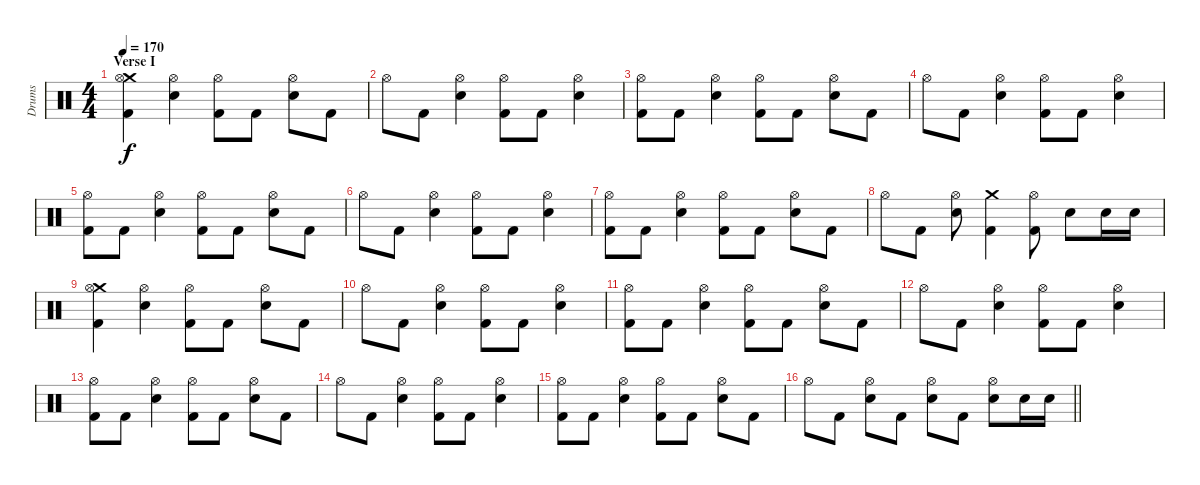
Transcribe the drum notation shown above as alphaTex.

\track ("Drums" "Drums") {instrument percussion}
\staff {score}
\articulation defaults
\ts (4 4)
\section ("" "Verse I")
\tempo 170
\clef neutral
\ks c
("Crash medium (hit)" "Hi-Hat (open)" "Kick (hit) 2").4{dy f} ("Hi-Hat (open)" "Electric Snare (hit)").4 ("Hi-Hat (open)" "Kick (hit) 2").8 "Kick (hit) 2".8 ("Hi-Hat (open)" "Electric Snare (hit)").8 "Kick (hit) 2".8 |
"Hi-Hat (open)".8 "Kick (hit) 2".8 ("Hi-Hat (open)" "Electric Snare (hit)").4 ("Hi-Hat (open)" "Kick (hit) 2").8 "Kick (hit) 2".8 ("Hi-Hat (open)" "Electric Snare (hit)").4 |
("Hi-Hat (open)" "Kick (hit) 2").8 "Kick (hit) 2".8 ("Hi-Hat (open)" "Electric Snare (hit)").4 ("Hi-Hat (open)" "Kick (hit) 2").8 "Kick (hit) 2".8 ("Hi-Hat (open)" "Electric Snare (hit)").8 "Kick (hit) 2".8 |
"Hi-Hat (open)".8 "Kick (hit) 2".8 ("Hi-Hat (open)" "Electric Snare (hit)").4 ("Hi-Hat (open)" "Kick (hit) 2").8 "Kick (hit) 2".8 ("Hi-Hat (open)" "Electric Snare (hit)").4 |
("Hi-Hat (open)" "Kick (hit) 2").8 "Kick (hit) 2".8 ("Hi-Hat (open)" "Electric Snare (hit)").4 ("Hi-Hat (open)" "Kick (hit) 2").8 "Kick (hit) 2".8 ("Hi-Hat (open)" "Electric Snare (hit)").8 "Kick (hit) 2".8 |
"Hi-Hat (open)".8 "Kick (hit) 2".8 ("Hi-Hat (open)" "Electric Snare (hit)").4 ("Hi-Hat (open)" "Kick (hit) 2").8 "Kick (hit) 2".8 ("Hi-Hat (open)" "Electric Snare (hit)").4 |
("Hi-Hat (open)" "Kick (hit) 2").8 "Kick (hit) 2".8 ("Hi-Hat (open)" "Electric Snare (hit)").4 ("Hi-Hat (open)" "Kick (hit) 2").8 "Kick (hit) 2".8 ("Hi-Hat (open)" "Electric Snare (hit)").8 "Kick (hit) 2".8 |
"Hi-Hat (open)".8 "Kick (hit) 2".8 ("Hi-Hat (open)" "Electric Snare (hit)").8 ("Crash medium (hit)" "Kick (hit) 2").4 ("Hi-Hat (open)" "Kick (hit) 2").8 "Electric Snare (hit)".8 "Electric Snare (hit)".16 "Electric Snare (hit)".16 |
("Crash medium (hit)" "Hi-Hat (open)" "Kick (hit) 2").4 ("Hi-Hat (open)" "Electric Snare (hit)").4 ("Hi-Hat (open)" "Kick (hit) 2").8 "Kick (hit) 2".8 ("Hi-Hat (open)" "Electric Snare (hit)").8 "Kick (hit) 2".8 |
"Hi-Hat (open)".8 "Kick (hit) 2".8 ("Hi-Hat (open)" "Electric Snare (hit)").4 ("Hi-Hat (open)" "Kick (hit) 2").8 "Kick (hit) 2".8 ("Hi-Hat (open)" "Electric Snare (hit)").4 |
("Hi-Hat (open)" "Kick (hit) 2").8 "Kick (hit) 2".8 ("Hi-Hat (open)" "Electric Snare (hit)").4 ("Hi-Hat (open)" "Kick (hit) 2").8 "Kick (hit) 2".8 ("Hi-Hat (open)" "Electric Snare (hit)").8 "Kick (hit) 2".8 |
"Hi-Hat (open)".8 "Kick (hit) 2".8 ("Hi-Hat (open)" "Electric Snare (hit)").4 ("Hi-Hat (open)" "Kick (hit) 2").8 "Kick (hit) 2".8 ("Hi-Hat (open)" "Electric Snare (hit)").4 |
("Hi-Hat (open)" "Kick (hit) 2").8 "Kick (hit) 2".8 ("Hi-Hat (open)" "Electric Snare (hit)").4 ("Hi-Hat (open)" "Kick (hit) 2").8 "Kick (hit) 2".8 ("Hi-Hat (open)" "Electric Snare (hit)").8 "Kick (hit) 2".8 |
"Hi-Hat (open)".8 "Kick (hit) 2".8 ("Hi-Hat (open)" "Electric Snare (hit)").4 ("Hi-Hat (open)" "Kick (hit) 2").8 "Kick (hit) 2".8 ("Hi-Hat (open)" "Electric Snare (hit)").4 |
("Hi-Hat (open)" "Kick (hit) 2").8 "Kick (hit) 2".8 ("Hi-Hat (open)" "Electric Snare (hit)").4 ("Hi-Hat (open)" "Kick (hit) 2").8 "Kick (hit) 2".8 ("Hi-Hat (open)" "Electric Snare (hit)").8 "Kick (hit) 2".8 |
\barLineRight lightlight "Hi-Hat (open)".8 "Kick (hit) 2".8
("Hi-Hat (open)" "Electric Snare (hit)").8 "Kick (hit) 2".8 ("Hi-Hat (open)" "Electric Snare (hit)").8 "Kick (hit) 2".8 ("Hi-Hat (open)" "Electric Snare (hit)").8 "Electric Snare (hit)".16 "Electric Snare (hit)".16
